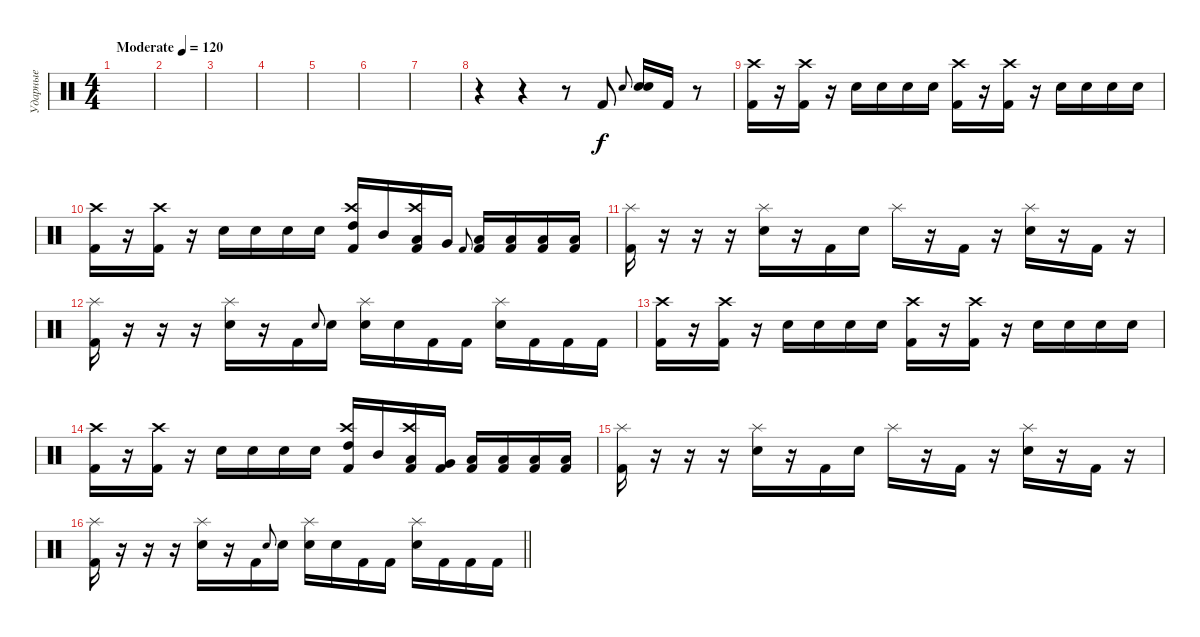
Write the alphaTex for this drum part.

\track ("Ударные" "Ударные") {instrument percussion}
\staff {score}
\articulation defaults
\ts (4 4)
\tempo (120 "Moderate")
\clef neutral
\ks c
|
|
|
|
|
|
|
r.4 r.4 r.8 "Kick (hit) 2".8 "Electric Snare (hit)".8{gr onbeat} ("Electric Snare (hit)" "Electric Snare (hit)").16 "Kick (hit) 2".16 r.8 |
("Crash high (hit)" "Kick (hit) 2").16 r.16 ("Crash high (hit)" "Kick (hit) 2").16 r.16 "Electric Snare (hit)".16 "Electric Snare (hit)".16 "Electric Snare (hit)".16 "Electric Snare (hit)".16 ("Crash high (hit)" "Kick (hit) 2").16 r.16 ("Crash high (hit)" "Kick (hit) 2").16 r.16 "Electric Snare (hit)".16 "Electric Snare (hit)".16 "Electric Snare (hit)".16 "Electric Snare (hit)".16 |
("Crash high (hit)" "Kick (hit) 2").16 r.16 ("Crash high (hit)" "Kick (hit) 2").16 r.16 "Electric Snare (hit)".16 "Electric Snare (hit)".16 "Electric Snare (hit)".16 "Electric Snare (hit)".16 ("Crash high (hit)" "High Tom (hit)" "Kick (hit) 2").16 "Mid Tom (hit)".16 ("Crash high (hit)" "Low Tom (hit)" "Kick (hit) 2").16 "Very Low Tom (hit)".16 "Kick (hit) 2".8{gr onbeat} ("Low Floor Tom (hit)" "Kick (hit) 2").16 ("Low Floor Tom (hit)" "Kick (hit) 2").16 ("Low Floor Tom (hit)" "Kick (hit) 2").16 ("Low Floor Tom (hit)" "Kick (hit) 2").16 |
("Splash (hit)" "Kick (hit) 2").16 r.16 r.16 r.16 ("Splash (hit)" "Electric Snare (hit)").16 r.16 "Kick (hit) 2".16 "Electric Snare (hit)".16 "Splash (hit)".16 r.16 "Kick (hit) 2".16 r.16 ("Splash (hit)" "Electric Snare (hit)").16 r.16 "Kick (hit) 2".16 r.16 |
("Splash (hit)" "Kick (hit) 2").16 r.16 r.16 r.16 ("Splash (hit)" "Electric Snare (hit)").16 r.16 "Kick (hit) 2".16 "Electric Snare (hit)".8{gr onbeat} "Electric Snare (hit)".16 ("Splash (hit)" "Electric Snare (hit)").16 "Electric Snare (hit)".16 "Kick (hit) 2".16 "Kick (hit) 2".16 ("Splash (hit)" "Electric Snare (hit)").16 "Kick (hit) 2".16 "Kick (hit) 2".16 "Kick (hit) 2".16 |
("Crash high (hit)" "Kick (hit) 2").16 r.16 ("Crash high (hit)" "Kick (hit) 2").16 r.16 "Electric Snare (hit)".16 "Electric Snare (hit)".16 "Electric Snare (hit)".16 "Electric Snare (hit)".16 ("Crash high (hit)" "Kick (hit) 2").16 r.16 ("Crash high (hit)" "Kick (hit) 2").16 r.16 "Electric Snare (hit)".16 "Electric Snare (hit)".16 "Electric Snare (hit)".16 "Electric Snare (hit)".16 |
("Crash high (hit)" "Kick (hit) 2").16 r.16 ("Crash high (hit)" "Kick (hit) 2").16 r.16 "Electric Snare (hit)".16 "Electric Snare (hit)".16 "Electric Snare (hit)".16 "Electric Snare (hit)".16 ("Crash high (hit)" "High Tom (hit)" "Kick (hit) 2").16 "Mid Tom (hit)".16 ("Crash high (hit)" "Low Tom (hit)" "Kick (hit) 2").16 ("Very Low Tom (hit)" "Kick (hit) 2").16 ("Low Floor Tom (hit)" "Kick (hit) 2").16 ("Low Floor Tom (hit)" "Kick (hit) 2").16 ("Low Floor Tom (hit)" "Kick (hit) 2").16 ("Low Floor Tom (hit)" "Kick (hit) 2").16 |
("Splash (hit)" "Kick (hit) 2").16 r.16 r.16 r.16 ("Splash (hit)" "Electric Snare (hit)").16 r.16 "Kick (hit) 2".16 "Electric Snare (hit)".16 "Splash (hit)".16 r.16 "Kick (hit) 2".16 r.16 ("Splash (hit)" "Electric Snare (hit)").16 r.16 "Kick (hit) 2".16 r.16 |
\barLineRight lightlight
("Splash (hit)" "Kick (hit) 2").16 r.16 r.16 r.16 ("Splash (hit)" "Electric Snare (hit)").16 r.16 "Kick (hit) 2".16 "Electric Snare (hit)".8{gr onbeat} "Electric Snare (hit)".16 ("Splash (hit)" "Electric Snare (hit)").16 "Electric Snare (hit)".16 "Kick (hit) 2".16 "Kick (hit) 2".16 ("Splash (hit)" "Electric Snare (hit)").16 "Kick (hit) 2".16 "Kick (hit) 2".16 "Kick (hit) 2".16
